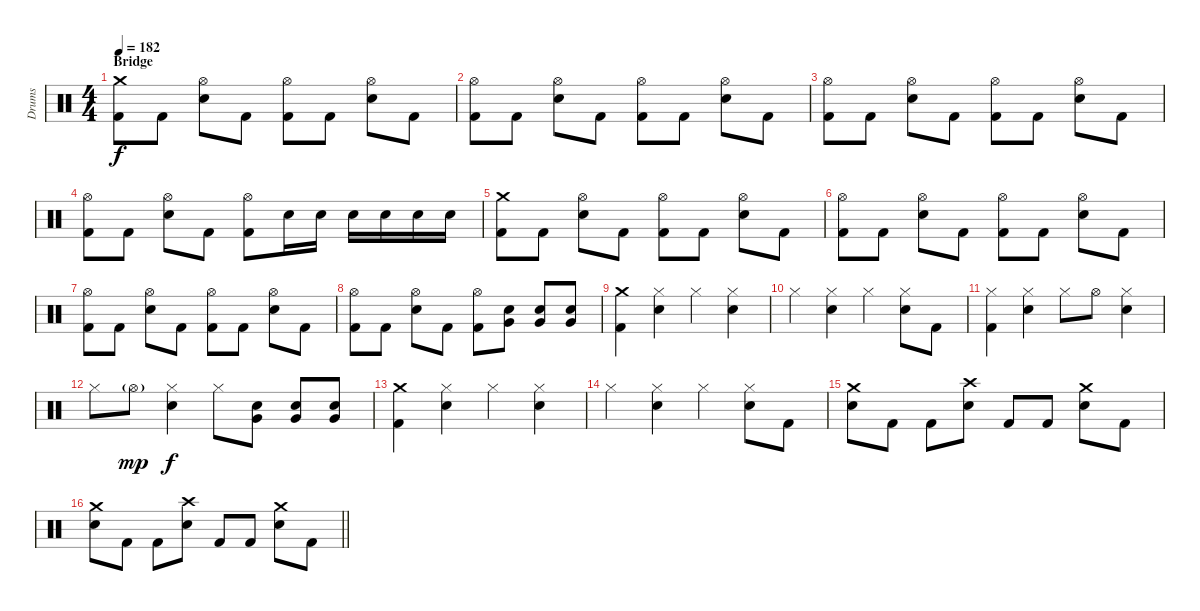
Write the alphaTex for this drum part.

\track ("Drums" "Drums") {instrument percussion}
\staff {score}
\articulation defaults
\ts (4 4)
\section ("" "Bridge")
\tempo 182
\clef neutral
\ks c
("Crash medium (hit)" "Kick (hit) 2").8{dy f} "Kick (hit) 2".8 ("Hi-Hat (open)" "Electric Snare (hit)").8 "Kick (hit) 2".8 ("Hi-Hat (open)" "Kick (hit) 2").8 "Kick (hit) 2".8 ("Hi-Hat (open)" "Electric Snare (hit)").8 "Kick (hit) 2".8 |
("Hi-Hat (open)" "Kick (hit) 2").8 "Kick (hit) 2".8 ("Hi-Hat (open)" "Electric Snare (hit)").8 "Kick (hit) 2".8 ("Hi-Hat (open)" "Kick (hit) 2").8 "Kick (hit) 2".8 ("Hi-Hat (open)" "Electric Snare (hit)").8 "Kick (hit) 2".8 |
("Hi-Hat (open)" "Kick (hit) 2").8 "Kick (hit) 2".8 ("Hi-Hat (open)" "Electric Snare (hit)").8 "Kick (hit) 2".8 ("Hi-Hat (open)" "Kick (hit) 2").8 "Kick (hit) 2".8 ("Hi-Hat (open)" "Electric Snare (hit)").8 "Kick (hit) 2".8 |
("Hi-Hat (open)" "Kick (hit) 2").8 "Kick (hit) 2".8 ("Hi-Hat (open)" "Electric Snare (hit)").8 "Kick (hit) 2".8 ("Hi-Hat (open)" "Kick (hit) 2").8 "Electric Snare (hit)".16 "Electric Snare (hit)".16 "Electric Snare (hit)".16 "Electric Snare (hit)".16 "Electric Snare (hit)".16 "Electric Snare (hit)".16 |
("Crash medium (hit)" "Kick (hit) 2").8 "Kick (hit) 2".8 ("Hi-Hat (open)" "Electric Snare (hit)").8 "Kick (hit) 2".8 ("Hi-Hat (open)" "Kick (hit) 2").8 "Kick (hit) 2".8 ("Hi-Hat (open)" "Electric Snare (hit)").8 "Kick (hit) 2".8 |
("Hi-Hat (open)" "Kick (hit) 2").8 "Kick (hit) 2".8 ("Hi-Hat (open)" "Electric Snare (hit)").8 "Kick (hit) 2".8 ("Hi-Hat (open)" "Kick (hit) 2").8 "Kick (hit) 2".8 ("Hi-Hat (open)" "Electric Snare (hit)").8 "Kick (hit) 2".8 |
("Hi-Hat (open)" "Kick (hit) 2").8 "Kick (hit) 2".8 ("Hi-Hat (open)" "Electric Snare (hit)").8 "Kick (hit) 2".8 ("Hi-Hat (open)" "Kick (hit) 2").8 "Kick (hit) 2".8 ("Hi-Hat (open)" "Electric Snare (hit)").8 "Kick (hit) 2".8 |
("Hi-Hat (open)" "Kick (hit) 2").8 "Kick (hit) 2".8 ("Hi-Hat (open)" "Electric Snare (hit)").8 "Kick (hit) 2".8 ("Hi-Hat (open)" "Kick (hit) 2").8 ("Very Low Tom (hit)" "Electric Snare (hit)").8 ("Very Low Tom (hit)" "Electric Snare (hit)").8 ("Very Low Tom (hit)" "Electric Snare (hit)").8 |
("Crash medium (hit)" "Kick (hit) 2").4 ("Hi-Hat (closed)" "Electric Snare (hit)").4 "Hi-Hat (closed)".4 ("Hi-Hat (closed)" "Electric Snare (hit)").4 |
"Hi-Hat (closed)".4 ("Hi-Hat (closed)" "Electric Snare (hit)").4 "Hi-Hat (closed)".4 ("Hi-Hat (closed)" "Electric Snare (hit)").8 "Kick (hit) 2".8 |
("Hi-Hat (closed)" "Kick (hit) 2").4 ("Hi-Hat (closed)" "Electric Snare (hit)").4 "Hi-Hat (closed)".8 "Hi-Hat (open)".8 ("Hi-Hat (closed)" "Electric Snare (hit)").4 |
"Hi-Hat (closed)".8 "Hi-Hat (open)"{g}.8{dy mp} ("Hi-Hat (closed)" "Electric Snare (hit)").4{dy f} "Hi-Hat (closed)".8 ("Very Low Tom (hit)" "Electric Snare (hit)").8 ("Very Low Tom (hit)" "Electric Snare (hit)").8 ("Very Low Tom (hit)" "Electric Snare (hit)").8 |
("Crash medium (hit)" "Kick (hit) 2").4 ("Hi-Hat (closed)" "Electric Snare (hit)").4 "Hi-Hat (closed)".4 ("Hi-Hat (closed)" "Electric Snare (hit)").4 |
"Hi-Hat (closed)".4 ("Hi-Hat (closed)" "Electric Snare (hit)").4 "Hi-Hat (closed)".4 ("Hi-Hat (closed)" "Electric Snare (hit)").8 "Kick (hit) 2".8 |
("Crash medium (hit)" "Electric Snare (hit)").8 "Kick (hit) 2".8 "Kick (hit) 2".8 ("Crash high (hit)" "Electric Snare (hit)").8 "Kick (hit) 2".8 "Kick (hit) 2".8 ("Crash medium (hit)" "Electric Snare (hit)").8 "Kick (hit) 2".8 |
\barLineRight lightlight
("Crash medium (hit)" "Electric Snare (hit)").8 "Kick (hit) 2".8 "Kick (hit) 2".8 ("Crash high (hit)" "Electric Snare (hit)").8 "Kick (hit) 2".8 "Kick (hit) 2".8 ("Crash medium (hit)" "Electric Snare (hit)").8 "Kick (hit) 2".8
